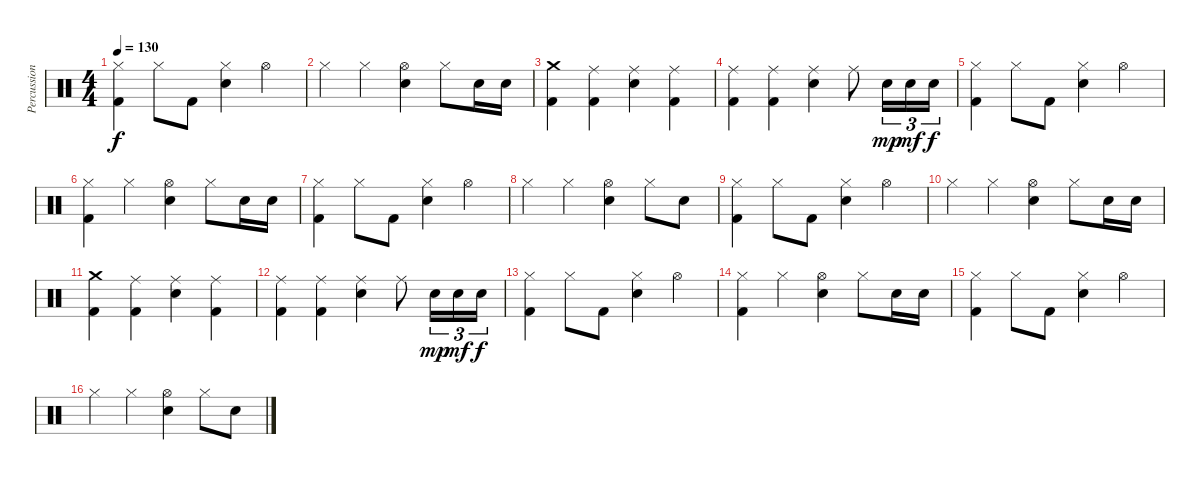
\track ("Percussions" "Percussion") {instrument percussion}
\staff {score}
\articulation defaults
\ts (4 4)
\tempo 130
\clef neutral
\ks c
("Hi-Hat (closed)" "Kick (hit) 2").4{dy f} "Hi-Hat (closed)".8 "Kick (hit) 2".8 ("Hi-Hat (closed)" "Snare (hit) 2").4 "Hi-Hat (open)".4 |
"Hi-Hat (closed)".4 "Hi-Hat (closed)".4 ("Hi-Hat (open)" "Snare (hit) 2").4 "Hi-Hat (closed)".8 "Snare (hit) 2".16 "Snare (hit) 2".16 |
("Crash medium (hit)" "Kick (hit) 2").4 ("Ride (middle)" "Kick (hit) 2").4 ("Ride (middle)" "Snare (hit) 2").4 ("Ride (middle)" "Kick (hit) 2").4 |
("Ride (middle)" "Kick (hit) 2").4 ("Ride (middle)" "Kick (hit) 2").4 ("Ride (middle)" "Snare (hit) 2").4 "Ride (middle)".8 "Snare (hit) 2".16{tu (3 2) dy mp} "Snare (hit) 2".16{tu (3 2) dy mf} "Snare (hit) 2".16{tu (3 2) dy f} |
("Hi-Hat (closed)" "Kick (hit) 2").4 "Hi-Hat (closed)".8 "Kick (hit) 2".8 ("Hi-Hat (closed)" "Snare (hit) 2").4 "Hi-Hat (open)".4 |
("Hi-Hat (closed)" "Kick (hit) 2").4 "Hi-Hat (closed)".4 ("Hi-Hat (open)" "Snare (hit) 2").4 "Hi-Hat (closed)".8 "Snare (hit) 2".16 "Snare (hit) 2".16 |
("Hi-Hat (closed)" "Kick (hit) 2").4 "Hi-Hat (closed)".8 "Kick (hit) 2".8 ("Hi-Hat (closed)" "Snare (hit) 2").4 "Hi-Hat (open)".4 |
"Hi-Hat (closed)".4 "Hi-Hat (closed)".4 ("Hi-Hat (open)" "Snare (hit) 2").4 "Hi-Hat (closed)".8 "Snare (hit) 2".8 |
("Hi-Hat (closed)" "Kick (hit) 2").4 "Hi-Hat (closed)".8 "Kick (hit) 2".8 ("Hi-Hat (closed)" "Snare (hit) 2").4 "Hi-Hat (open)".4 |
"Hi-Hat (closed)".4 "Hi-Hat (closed)".4 ("Hi-Hat (open)" "Snare (hit) 2").4 "Hi-Hat (closed)".8 "Snare (hit) 2".16 "Snare (hit) 2".16 |
("Crash medium (hit)" "Kick (hit) 2").4 ("Ride (middle)" "Kick (hit) 2").4 ("Ride (middle)" "Snare (hit) 2").4 ("Ride (middle)" "Kick (hit) 2").4 |
("Ride (middle)" "Kick (hit) 2").4 ("Ride (middle)" "Kick (hit) 2").4 ("Ride (middle)" "Snare (hit) 2").4 "Ride (middle)".8 "Snare (hit) 2".16{tu (3 2) dy mp} "Snare (hit) 2".16{tu (3 2) dy mf} "Snare (hit) 2".16{tu (3 2) dy f} |
("Hi-Hat (closed)" "Kick (hit) 2").4 "Hi-Hat (closed)".8 "Kick (hit) 2".8 ("Hi-Hat (closed)" "Snare (hit) 2").4 "Hi-Hat (open)".4 |
("Hi-Hat (closed)" "Kick (hit) 2").4 "Hi-Hat (closed)".4 ("Hi-Hat (open)" "Snare (hit) 2").4 "Hi-Hat (closed)".8 "Snare (hit) 2".16 "Snare (hit) 2".16 |
("Hi-Hat (closed)" "Kick (hit) 2").4 "Hi-Hat (closed)".8 "Kick (hit) 2".8 ("Hi-Hat (closed)" "Snare (hit) 2").4 "Hi-Hat (open)".4 |
"Hi-Hat (closed)".4 "Hi-Hat (closed)".4 ("Hi-Hat (open)" "Snare (hit) 2").4 "Hi-Hat (closed)".8 "Snare (hit) 2".8
